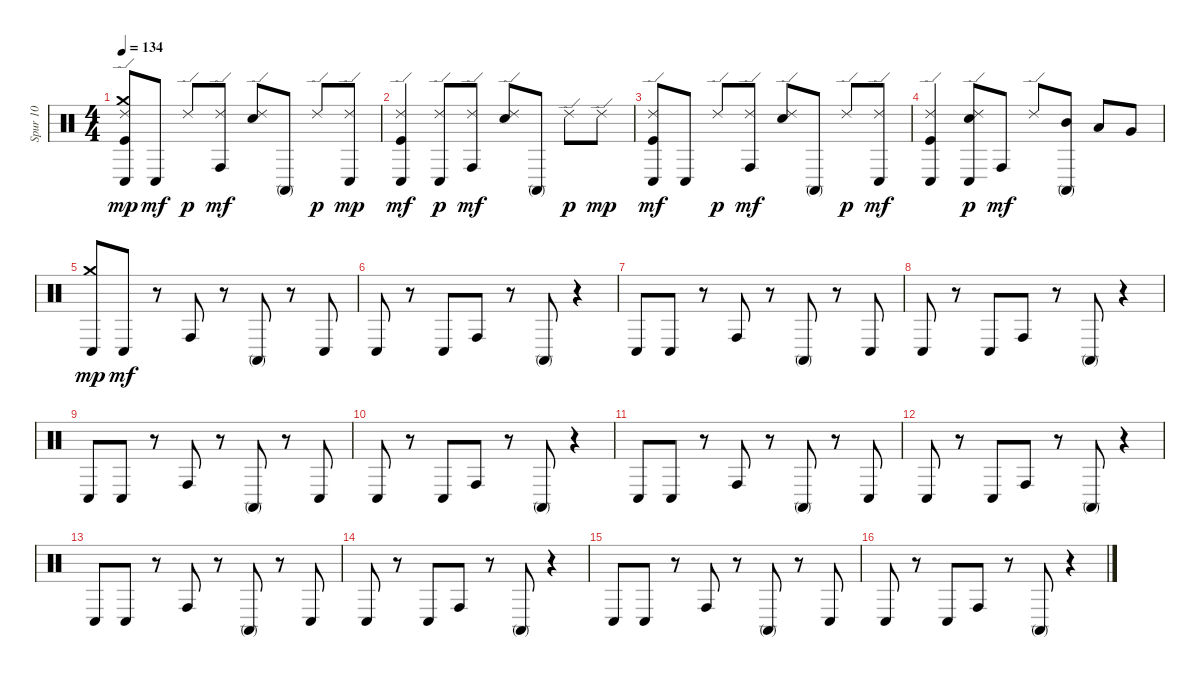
\track ("Spur 10" "Spur 10") {instrument percussion}
\staff {score}
\articulation defaults
\ts (4 4)
\tempo 134
\clef neutral
\ks c
("Kick (hit)" "Ride (edge) 2" "Conga low (hit)" "Crash medium (hit)").8{dy mp} "Conga low (hit)".8{dy mf} "Ride (edge) 2".8{dy p} ("Ride (edge) 2" "Conga high (hit)").8{dy mf} ("Ride (edge) 2" "Electric Snare (hit)").8 "Conga high (mute)".8 "Ride (edge) 2".8{dy p} ("Conga low (hit)" "Ride (edge) 2").8{dy mp} |
("Conga low (hit)" "Kick (hit)" "Ride (edge) 2").4{dy mf} ("Conga low (hit)" "Ride (edge) 2").8{dy p} ("Ride (edge) 2" "Conga high (hit)").8{dy mf} ("Ride (edge) 2" "Electric Snare (hit)").8 "Conga high (mute)".8 "Ride (edge) 2".8{dy p} "Ride (edge) 2".8{dy mp} |
("Kick (hit)" "Ride (edge) 2" "Conga low (hit)").8{dy mf} "Conga low (hit)".8 "Ride (edge) 2".8{dy p} ("Ride (edge) 2" "Conga high (hit)").8{dy mf} ("Electric Snare (hit)" "Ride (edge) 2").8 "Conga high (mute)".8 "Ride (edge) 2".8{dy p} ("Ride (edge) 2" "Conga low (hit)").8{dy mf} |
("Kick (hit)" "Ride (edge) 2" "Conga low (hit)").4 ("Electric Snare (hit)" "Conga low (hit)" "Ride (edge) 2").8{dy p} "Conga high (hit)".8{dy mf} "Ride (edge) 2".8 ("Mid Tom (hit)" "Conga high (mute)").8 "Low Tom (hit)".8 "Very Low Tom (hit)".8 |
("Conga low (hit)" "Crash medium (hit)").8{dy mp} "Conga low (hit)".8{dy mf} r.8 "Conga high (hit)".8 r.8 "Conga high (mute)".8 r.8 "Conga low (hit)".8 |
"Conga low (hit)".8 r.8 "Conga low (hit)".8 "Conga high (hit)".8 r.8 "Conga high (mute)".8 r.4 |
"Conga low (hit)".8 "Conga low (hit)".8 r.8 "Conga high (hit)".8 r.8 "Conga high (mute)".8 r.8 "Conga low (hit)".8 |
"Conga low (hit)".8 r.8 "Conga low (hit)".8 "Conga high (hit)".8 r.8 "Conga high (mute)".8 r.4 |
"Conga low (hit)".8 "Conga low (hit)".8 r.8 "Conga high (hit)".8 r.8 "Conga high (mute)".8 r.8 "Conga low (hit)".8 |
"Conga low (hit)".8 r.8 "Conga low (hit)".8 "Conga high (hit)".8 r.8 "Conga high (mute)".8 r.4 |
"Conga low (hit)".8 "Conga low (hit)".8 r.8 "Conga high (hit)".8 r.8 "Conga high (mute)".8 r.8 "Conga low (hit)".8 |
"Conga low (hit)".8 r.8 "Conga low (hit)".8 "Conga high (hit)".8 r.8 "Conga high (mute)".8 r.4 |
"Conga low (hit)".8 "Conga low (hit)".8 r.8 "Conga high (hit)".8 r.8 "Conga high (mute)".8 r.8 "Conga low (hit)".8 |
"Conga low (hit)".8 r.8 "Conga low (hit)".8 "Conga high (hit)".8 r.8 "Conga high (mute)".8 r.4 |
"Conga low (hit)".8 "Conga low (hit)".8 r.8 "Conga high (hit)".8 r.8 "Conga high (mute)".8 r.8 "Conga low (hit)".8 |
"Conga low (hit)".8 r.8 "Conga low (hit)".8 "Conga high (hit)".8 r.8 "Conga high (mute)".8 r.4
